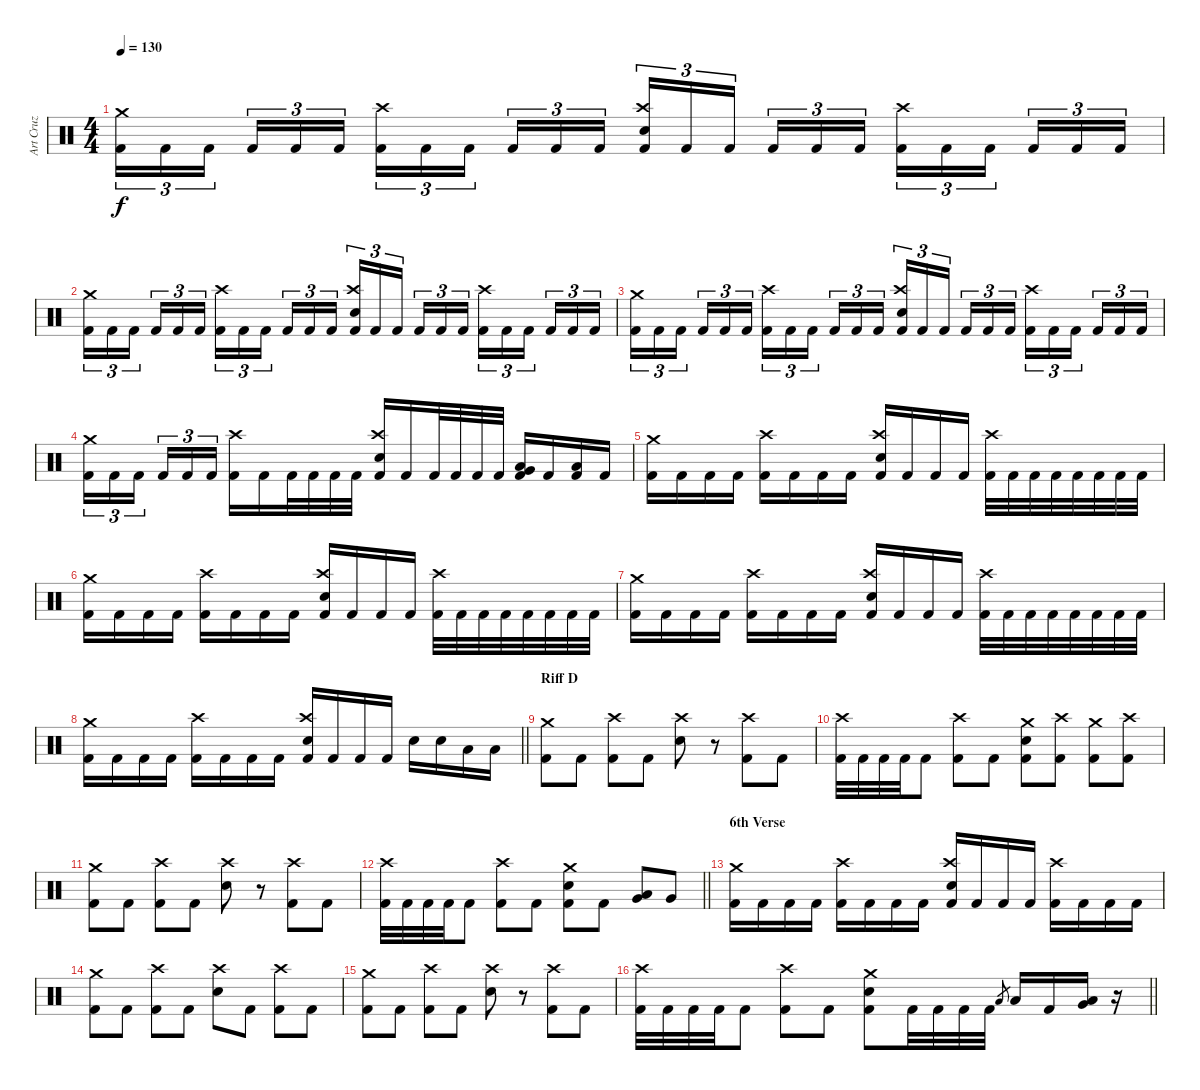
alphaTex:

\track ("Art Cruz" "Art Cruz") {instrument percussion}
\staff {score}
\articulation defaults
\ts (4 4)
\tempo 130
\clef neutral
\ks c
("Crash medium (hit)" "Kick (hit) 2").16{tu (3 2) dy f} "Kick (hit) 2".16{tu (3 2)} "Kick (hit) 2".16{tu (3 2) beam splitsecondary} "Kick (hit) 2".16{tu (3 2)} "Kick (hit) 2".16{tu (3 2)} "Kick (hit) 2".16{tu (3 2)} ("Crash high (hit)" "Kick (hit) 2").16{tu (3 2)} "Kick (hit) 2".16{tu (3 2)} "Kick (hit) 2".16{tu (3 2) beam splitsecondary} "Kick (hit) 2".16{tu (3 2)} "Kick (hit) 2".16{tu (3 2)} "Kick (hit) 2".16{tu (3 2)} ("Crash high (hit)" "Snare (hit) 2" "Kick (hit) 2").16{tu (3 2)} "Kick (hit) 2".16{tu (3 2)} "Kick (hit) 2".16{tu (3 2) beam splitsecondary} "Kick (hit) 2".16{tu (3 2)} "Kick (hit) 2".16{tu (3 2)} "Kick (hit) 2".16{tu (3 2)} ("Crash high (hit)" "Kick (hit) 2").16{tu (3 2)} "Kick (hit) 2".16{tu (3 2)} "Kick (hit) 2".16{tu (3 2) beam splitsecondary} "Kick (hit) 2".16{tu (3 2)} "Kick (hit) 2".16{tu (3 2)} "Kick (hit) 2".16{tu (3 2)} |
("Crash medium (hit)" "Kick (hit) 2").16{tu (3 2)} "Kick (hit) 2".16{tu (3 2)} "Kick (hit) 2".16{tu (3 2) beam splitsecondary} "Kick (hit) 2".16{tu (3 2)} "Kick (hit) 2".16{tu (3 2)} "Kick (hit) 2".16{tu (3 2)} ("Crash high (hit)" "Kick (hit) 2").16{tu (3 2)} "Kick (hit) 2".16{tu (3 2)} "Kick (hit) 2".16{tu (3 2) beam splitsecondary} "Kick (hit) 2".16{tu (3 2)} "Kick (hit) 2".16{tu (3 2)} "Kick (hit) 2".16{tu (3 2)} ("Crash high (hit)" "Snare (hit) 2" "Kick (hit) 2").16{tu (3 2)} "Kick (hit) 2".16{tu (3 2)} "Kick (hit) 2".16{tu (3 2) beam splitsecondary} "Kick (hit) 2".16{tu (3 2)} "Kick (hit) 2".16{tu (3 2)} "Kick (hit) 2".16{tu (3 2)} ("Crash high (hit)" "Kick (hit) 2").16{tu (3 2)} "Kick (hit) 2".16{tu (3 2)} "Kick (hit) 2".16{tu (3 2) beam splitsecondary} "Kick (hit) 2".16{tu (3 2)} "Kick (hit) 2".16{tu (3 2)} "Kick (hit) 2".16{tu (3 2)} |
("Crash medium (hit)" "Kick (hit) 2").16{tu (3 2)} "Kick (hit) 2".16{tu (3 2)} "Kick (hit) 2".16{tu (3 2) beam splitsecondary} "Kick (hit) 2".16{tu (3 2)} "Kick (hit) 2".16{tu (3 2)} "Kick (hit) 2".16{tu (3 2)} ("Crash high (hit)" "Kick (hit) 2").16{tu (3 2)} "Kick (hit) 2".16{tu (3 2)} "Kick (hit) 2".16{tu (3 2) beam splitsecondary} "Kick (hit) 2".16{tu (3 2)} "Kick (hit) 2".16{tu (3 2)} "Kick (hit) 2".16{tu (3 2)} ("Crash high (hit)" "Snare (hit) 2" "Kick (hit) 2").16{tu (3 2)} "Kick (hit) 2".16{tu (3 2)} "Kick (hit) 2".16{tu (3 2) beam splitsecondary} "Kick (hit) 2".16{tu (3 2)} "Kick (hit) 2".16{tu (3 2)} "Kick (hit) 2".16{tu (3 2)} ("Crash high (hit)" "Kick (hit) 2").16{tu (3 2)} "Kick (hit) 2".16{tu (3 2)} "Kick (hit) 2".16{tu (3 2) beam splitsecondary} "Kick (hit) 2".16{tu (3 2)} "Kick (hit) 2".16{tu (3 2)} "Kick (hit) 2".16{tu (3 2)} |
("Crash medium (hit)" "Kick (hit) 2").16{tu (3 2)} "Kick (hit) 2".16{tu (3 2)} "Kick (hit) 2".16{tu (3 2) beam splitsecondary} "Kick (hit) 2".16{tu (3 2)} "Kick (hit) 2".16{tu (3 2)} "Kick (hit) 2".16{tu (3 2)} ("Crash high (hit)" "Kick (hit) 2").16 "Kick (hit) 2".16 "Kick (hit) 2".32 "Kick (hit) 2".32 "Kick (hit) 2".32 "Kick (hit) 2".32 ("Crash high (hit)" "Snare (hit) 2" "Kick (hit) 2").16 "Kick (hit) 2".16 "Kick (hit) 2".32 "Kick (hit) 2".32 "Kick (hit) 2".32 "Kick (hit) 2".32 ("Low Tom (hit)" "Very Low Tom (hit)" "Kick (hit) 2").16 "Kick (hit) 2".16 ("Low Floor Tom (hit)" "Kick (hit) 2").16 "Kick (hit) 2".16 |
("Crash medium (hit)" "Kick (hit) 2").16 "Kick (hit) 2".16 "Kick (hit) 2".16 "Kick (hit) 2".16 ("Crash high (hit)" "Kick (hit) 2").16 "Kick (hit) 2".16 "Kick (hit) 2".16 "Kick (hit) 2".16 ("Crash high (hit)" "Snare (hit) 2" "Kick (hit) 2").16 "Kick (hit) 2".16 "Kick (hit) 2".16 "Kick (hit) 2".16 ("Crash high (hit)" "Kick (hit) 2").32 "Kick (hit) 2".32 "Kick (hit) 2".32 "Kick (hit) 2".32 "Kick (hit) 2".32 "Kick (hit) 2".32 "Kick (hit) 2".32 "Kick (hit) 2".32 |
("Crash medium (hit)" "Kick (hit) 2").16 "Kick (hit) 2".16 "Kick (hit) 2".16 "Kick (hit) 2".16 ("Crash high (hit)" "Kick (hit) 2").16 "Kick (hit) 2".16 "Kick (hit) 2".16 "Kick (hit) 2".16 ("Crash high (hit)" "Snare (hit) 2" "Kick (hit) 2").16 "Kick (hit) 2".16 "Kick (hit) 2".16 "Kick (hit) 2".16 ("Crash high (hit)" "Kick (hit) 2").32 "Kick (hit) 2".32 "Kick (hit) 2".32 "Kick (hit) 2".32 "Kick (hit) 2".32 "Kick (hit) 2".32 "Kick (hit) 2".32 "Kick (hit) 2".32 |
("Crash medium (hit)" "Kick (hit) 2").16 "Kick (hit) 2".16 "Kick (hit) 2".16 "Kick (hit) 2".16 ("Crash high (hit)" "Kick (hit) 2").16 "Kick (hit) 2".16 "Kick (hit) 2".16 "Kick (hit) 2".16 ("Crash high (hit)" "Snare (hit) 2" "Kick (hit) 2").16 "Kick (hit) 2".16 "Kick (hit) 2".16 "Kick (hit) 2".16 ("Crash high (hit)" "Kick (hit) 2").32 "Kick (hit) 2".32 "Kick (hit) 2".32 "Kick (hit) 2".32 "Kick (hit) 2".32 "Kick (hit) 2".32 "Kick (hit) 2".32 "Kick (hit) 2".32 |
\barLineRight lightlight
("Crash medium (hit)" "Kick (hit) 2").16 "Kick (hit) 2".16 "Kick (hit) 2".16 "Kick (hit) 2".16 ("Crash high (hit)" "Kick (hit) 2").16 "Kick (hit) 2".16 "Kick (hit) 2".16 "Kick (hit) 2".16 ("Crash high (hit)" "Snare (hit) 2" "Kick (hit) 2").16 "Kick (hit) 2".16 "Kick (hit) 2".16 "Kick (hit) 2".16 "Snare (hit) 2".16 "Snare (hit) 2".16 "Low Tom (hit)".16 "Low Tom (hit)".16 |
\section ("" "Riff D")
("Crash medium (hit)" "Kick (hit) 2").8 "Kick (hit) 2".8 ("Crash high (hit)" "Kick (hit) 2").8 "Kick (hit) 2".8 ("Crash high (hit)" "Snare (hit) 2").8 r.8 ("Crash high (hit)" "Kick (hit) 2").8 "Kick (hit) 2".8 |
("Crash high (hit)" "Kick (hit) 2").32 "Kick (hit) 2".32 "Kick (hit) 2".32 "Kick (hit) 2".32 "Kick (hit) 2".8 ("Crash high (hit)" "Kick (hit) 2").8 "Kick (hit) 2".8 ("Crash medium (hit)" "Snare (hit) 2" "Kick (hit) 2").8 ("Crash high (hit)" "Kick (hit) 2").8 ("Crash medium (hit)" "Kick (hit) 2").8 ("Crash high (hit)" "Kick (hit) 2").8 |
("Crash medium (hit)" "Kick (hit) 2").8 "Kick (hit) 2".8 ("Crash high (hit)" "Kick (hit) 2").8 "Kick (hit) 2".8 ("Crash high (hit)" "Snare (hit) 2").8 r.8 ("Crash high (hit)" "Kick (hit) 2").8 "Kick (hit) 2".8 |
\barLineRight lightlight
("Crash high (hit)" "Kick (hit) 2").32 "Kick (hit) 2".32 "Kick (hit) 2".32 "Kick (hit) 2".32 "Kick (hit) 2".8 ("Crash high (hit)" "Kick (hit) 2").8 "Kick (hit) 2".8 ("Crash medium (hit)" "Snare (hit) 2" "Kick (hit) 2").8 "Kick (hit) 2".8 ("Low Tom (hit)" "Very Low Tom (hit)").8 "Very Low Tom (hit)".8 |
\section ("" "6th Verse")
("Crash medium (hit)" "Kick (hit) 2").16 "Kick (hit) 2".16 "Kick (hit) 2".16 "Kick (hit) 2".16 ("Crash high (hit)" "Kick (hit) 2").16 "Kick (hit) 2".16 "Kick (hit) 2".16 "Kick (hit) 2".16 ("Crash high (hit)" "Snare (hit) 2" "Kick (hit) 2").16 "Kick (hit) 2".16 "Kick (hit) 2".16 "Kick (hit) 2".16 ("Crash high (hit)" "Kick (hit) 2").16 "Kick (hit) 2".16 "Kick (hit) 2".16 "Kick (hit) 2".16 |
("Crash medium (hit)" "Kick (hit) 2").8 "Kick (hit) 2".8 ("Crash high (hit)" "Kick (hit) 2").8 "Kick (hit) 2".8 ("Crash high (hit)" "Snare (hit) 2").8 "Kick (hit) 2".8 ("Crash high (hit)" "Kick (hit) 2").8 "Kick (hit) 2".8 |
("Crash medium (hit)" "Kick (hit) 2").8 "Kick (hit) 2".8 ("Crash high (hit)" "Kick (hit) 2").8 "Kick (hit) 2".8 ("Crash high (hit)" "Snare (hit) 2").8 r.8 ("Crash high (hit)" "Kick (hit) 2").8 "Kick (hit) 2".8 |
\barLineRight lightlight
("Crash high (hit)" "Kick (hit) 2").32 "Kick (hit) 2".32 "Kick (hit) 2".32 "Kick (hit) 2".32 "Kick (hit) 2".8 ("Crash high (hit)" "Kick (hit) 2").8 "Kick (hit) 2".8 ("Crash medium (hit)" "Snare (hit) 2" "Kick (hit) 2").8 "Kick (hit) 2".32 "Kick (hit) 2".32 "Kick (hit) 2".32 "Kick (hit) 2".32 "Low Tom (hit)".8{gr} "Low Tom (hit)".16 "Kick (hit) 2".16 ("Very Low Tom (hit)" "Low Floor Tom (hit)").16 r.16
